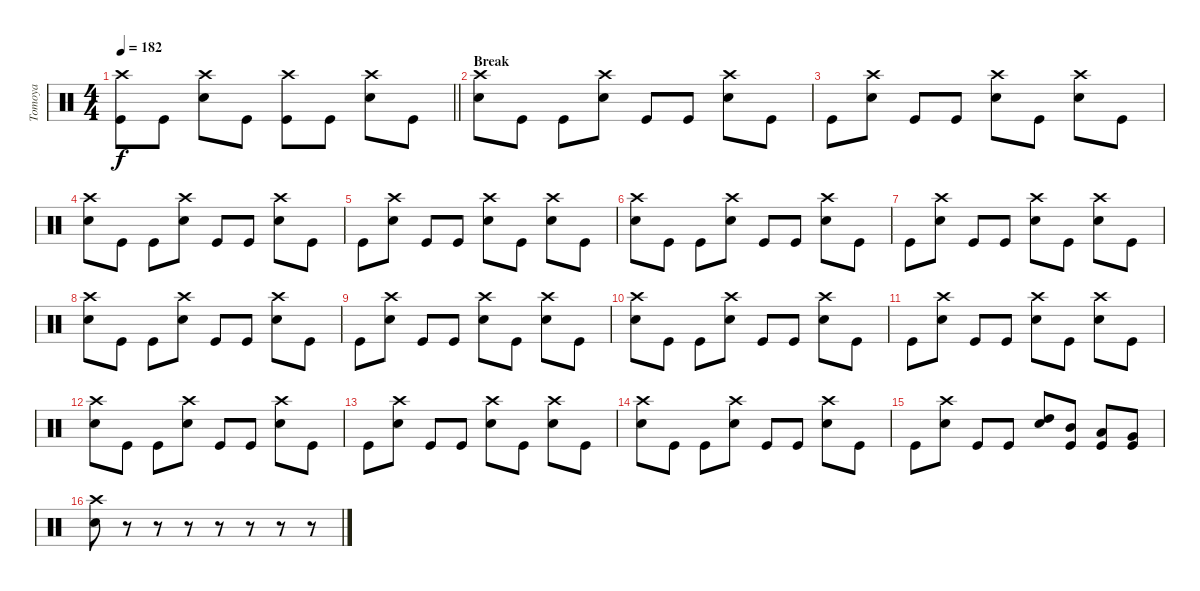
\track ("Tomoya" "Tomoya") {instrument percussion}
\staff {score}
\articulation defaults
\ts (4 4)
\tempo 182
\clef neutral
\barLineRight lightlight
\ks c
("Crash high (hit)" "Kick (hit)").8{dy f} "Kick (hit)".8 ("Crash high (hit)" "Snare (hit) 2").8 "Kick (hit)".8 ("Crash high (hit)" "Kick (hit)").8 "Kick (hit)".8 ("Crash high (hit)" "Snare (hit) 2").8 "Kick (hit)".8 |
\section ("" "Break")
("Crash high (hit)" "Snare (hit) 2").8 "Kick (hit)".8 "Kick (hit)".8 ("Crash high (hit)" "Snare (hit) 2").8 "Kick (hit)".8 "Kick (hit)".8 ("Crash high (hit)" "Snare (hit) 2").8 "Kick (hit)".8 |
"Kick (hit)".8 ("Crash high (hit)" "Snare (hit) 2").8 "Kick (hit)".8 "Kick (hit)".8 ("Crash high (hit)" "Snare (hit) 2").8 "Kick (hit)".8 ("Crash high (hit)" "Snare (hit) 2").8 "Kick (hit)".8 |
("Crash high (hit)" "Snare (hit) 2").8 "Kick (hit)".8 "Kick (hit)".8 ("Crash high (hit)" "Snare (hit) 2").8 "Kick (hit)".8 "Kick (hit)".8 ("Crash high (hit)" "Snare (hit) 2").8 "Kick (hit)".8 |
"Kick (hit)".8 ("Crash high (hit)" "Snare (hit) 2").8 "Kick (hit)".8 "Kick (hit)".8 ("Crash high (hit)" "Snare (hit) 2").8 "Kick (hit)".8 ("Crash high (hit)" "Snare (hit) 2").8 "Kick (hit)".8 |
("Crash high (hit)" "Snare (hit) 2").8 "Kick (hit)".8 "Kick (hit)".8 ("Crash high (hit)" "Snare (hit) 2").8 "Kick (hit)".8 "Kick (hit)".8 ("Crash high (hit)" "Snare (hit) 2").8 "Kick (hit)".8 |
"Kick (hit)".8 ("Crash high (hit)" "Snare (hit) 2").8 "Kick (hit)".8 "Kick (hit)".8 ("Crash high (hit)" "Snare (hit) 2").8 "Kick (hit)".8 ("Crash high (hit)" "Snare (hit) 2").8 "Kick (hit)".8 |
("Crash high (hit)" "Snare (hit) 2").8 "Kick (hit)".8 "Kick (hit)".8 ("Crash high (hit)" "Snare (hit) 2").8 "Kick (hit)".8 "Kick (hit)".8 ("Crash high (hit)" "Snare (hit) 2").8 "Kick (hit)".8 |
"Kick (hit)".8 ("Crash high (hit)" "Snare (hit) 2").8 "Kick (hit)".8 "Kick (hit)".8 ("Crash high (hit)" "Snare (hit) 2").8 "Kick (hit)".8 ("Crash high (hit)" "Snare (hit) 2").8 "Kick (hit)".8 |
("Crash high (hit)" "Snare (hit) 2").8 "Kick (hit)".8 "Kick (hit)".8 ("Crash high (hit)" "Snare (hit) 2").8 "Kick (hit)".8 "Kick (hit)".8 ("Crash high (hit)" "Snare (hit) 2").8 "Kick (hit)".8 |
"Kick (hit)".8 ("Crash high (hit)" "Snare (hit) 2").8 "Kick (hit)".8 "Kick (hit)".8 ("Crash high (hit)" "Snare (hit) 2").8 "Kick (hit)".8 ("Crash high (hit)" "Snare (hit) 2").8 "Kick (hit)".8 |
("Crash high (hit)" "Snare (hit) 2").8 "Kick (hit)".8 "Kick (hit)".8 ("Crash high (hit)" "Snare (hit) 2").8 "Kick (hit)".8 "Kick (hit)".8 ("Crash high (hit)" "Snare (hit) 2").8 "Kick (hit)".8 |
"Kick (hit)".8 ("Crash high (hit)" "Snare (hit) 2").8 "Kick (hit)".8 "Kick (hit)".8 ("Crash high (hit)" "Snare (hit) 2").8 "Kick (hit)".8 ("Crash high (hit)" "Snare (hit) 2").8 "Kick (hit)".8 |
("Crash high (hit)" "Snare (hit) 2").8 "Kick (hit)".8 "Kick (hit)".8 ("Crash high (hit)" "Snare (hit) 2").8 "Kick (hit)".8 "Kick (hit)".8 ("Crash high (hit)" "Snare (hit) 2").8 "Kick (hit)".8 |
"Kick (hit)".8 ("Crash high (hit)" "Snare (hit) 2").8 "Kick (hit)".8 "Kick (hit)".8 ("High Tom (hit)" "Snare (hit) 2").8 ("Mid Tom (hit)" "Kick (hit)").8 ("Low Tom (hit)" "Kick (hit)").8 ("Very Low Tom (hit)" "Kick (hit)").8 |
("Crash high (hit)" "Snare (hit) 2").8 r.8 r.8 r.8 r.8 r.8 r.8 r.8
